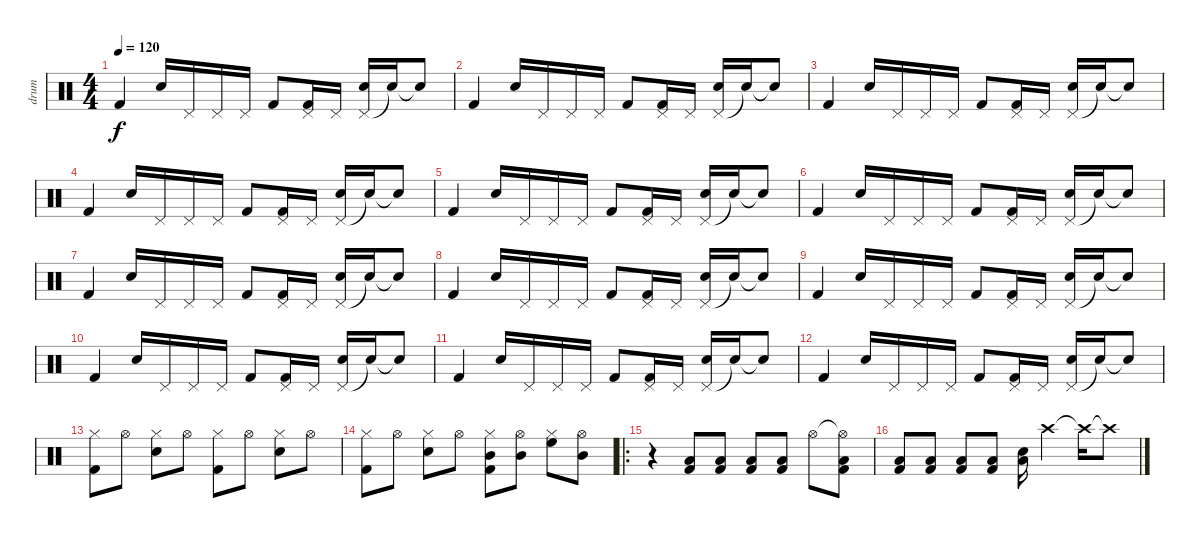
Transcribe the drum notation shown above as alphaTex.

\track ("drum" "drum") {instrument percussion}
\staff {score}
\articulation defaults
\ts (4 4)
\tempo 120
\clef neutral
\ks c "Kick (hit) 2".4{dy f} "Electric Snare (hit)".16 "Pedal Hi-Hat (hit)".16 "Pedal Hi-Hat (hit)".16 "Pedal Hi-Hat (hit)".16 "Kick (hit) 2".8
("Pedal Hi-Hat (hit)" "Kick (hit) 2").16 "Pedal Hi-Hat (hit)".16 ("Pedal Hi-Hat (hit)" "Electric Snare (hit)").16 "Snare (hit)"{t}.16 "Snare (hit)"{t}.8 |
"Kick (hit) 2".4 "Electric Snare (hit)".16 "Pedal Hi-Hat (hit)".16 "Pedal Hi-Hat (hit)".16 "Pedal Hi-Hat (hit)".16 "Kick (hit) 2".8 ("Pedal Hi-Hat (hit)" "Kick (hit) 2").16 "Pedal Hi-Hat (hit)".16 ("Pedal Hi-Hat (hit)" "Electric Snare (hit)").16 "Snare (hit)"{t}.16 "Snare (hit)"{t}.8 |
"Kick (hit) 2".4 "Electric Snare (hit)".16 "Pedal Hi-Hat (hit)".16 "Pedal Hi-Hat (hit)".16 "Pedal Hi-Hat (hit)".16 "Kick (hit) 2".8 ("Pedal Hi-Hat (hit)" "Kick (hit) 2").16 "Pedal Hi-Hat (hit)".16 ("Pedal Hi-Hat (hit)" "Electric Snare (hit)").16 "Snare (hit)"{t}.16 "Snare (hit)"{t}.8 |
"Kick (hit) 2".4 "Electric Snare (hit)".16 "Pedal Hi-Hat (hit)".16 "Pedal Hi-Hat (hit)".16 "Pedal Hi-Hat (hit)".16 "Kick (hit) 2".8 ("Pedal Hi-Hat (hit)" "Kick (hit) 2").16 "Pedal Hi-Hat (hit)".16 ("Pedal Hi-Hat (hit)" "Electric Snare (hit)").16 "Snare (hit)"{t}.16 "Snare (hit)"{t}.8 |
"Kick (hit) 2".4 "Electric Snare (hit)".16 "Pedal Hi-Hat (hit)".16 "Pedal Hi-Hat (hit)".16 "Pedal Hi-Hat (hit)".16 "Kick (hit) 2".8 ("Pedal Hi-Hat (hit)" "Kick (hit) 2").16 "Pedal Hi-Hat (hit)".16 ("Pedal Hi-Hat (hit)" "Electric Snare (hit)").16 "Snare (hit)"{t}.16 "Snare (hit)"{t}.8 |
"Kick (hit) 2".4 "Electric Snare (hit)".16 "Pedal Hi-Hat (hit)".16 "Pedal Hi-Hat (hit)".16 "Pedal Hi-Hat (hit)".16 "Kick (hit) 2".8 ("Pedal Hi-Hat (hit)" "Kick (hit) 2").16 "Pedal Hi-Hat (hit)".16 ("Pedal Hi-Hat (hit)" "Electric Snare (hit)").16 "Snare (hit)"{t}.16 "Snare (hit)"{t}.8 |
"Kick (hit) 2".4 "Electric Snare (hit)".16 "Pedal Hi-Hat (hit)".16 "Pedal Hi-Hat (hit)".16 "Pedal Hi-Hat (hit)".16 "Kick (hit) 2".8 ("Pedal Hi-Hat (hit)" "Kick (hit) 2").16 "Pedal Hi-Hat (hit)".16 ("Pedal Hi-Hat (hit)" "Electric Snare (hit)").16 "Snare (hit)"{t}.16 "Snare (hit)"{t}.8 |
"Kick (hit) 2".4 "Electric Snare (hit)".16 "Pedal Hi-Hat (hit)".16 "Pedal Hi-Hat (hit)".16 "Pedal Hi-Hat (hit)".16 "Kick (hit) 2".8 ("Pedal Hi-Hat (hit)" "Kick (hit) 2").16 "Pedal Hi-Hat (hit)".16 ("Pedal Hi-Hat (hit)" "Electric Snare (hit)").16 "Snare (hit)"{t}.16 "Snare (hit)"{t}.8 |
"Kick (hit) 2".4 "Electric Snare (hit)".16 "Pedal Hi-Hat (hit)".16 "Pedal Hi-Hat (hit)".16 "Pedal Hi-Hat (hit)".16 "Kick (hit) 2".8 ("Pedal Hi-Hat (hit)" "Kick (hit) 2").16 "Pedal Hi-Hat (hit)".16 ("Pedal Hi-Hat (hit)" "Electric Snare (hit)").16 "Snare (hit)"{t}.16 "Snare (hit)"{t}.8 |
"Kick (hit) 2".4 "Electric Snare (hit)".16 "Pedal Hi-Hat (hit)".16 "Pedal Hi-Hat (hit)".16 "Pedal Hi-Hat (hit)".16 "Kick (hit) 2".8 ("Pedal Hi-Hat (hit)" "Kick (hit) 2").16 "Pedal Hi-Hat (hit)".16 ("Pedal Hi-Hat (hit)" "Electric Snare (hit)").16 "Snare (hit)"{t}.16 "Snare (hit)"{t}.8 |
"Kick (hit) 2".4 "Electric Snare (hit)".16 "Pedal Hi-Hat (hit)".16 "Pedal Hi-Hat (hit)".16 "Pedal Hi-Hat (hit)".16 "Kick (hit) 2".8 ("Pedal Hi-Hat (hit)" "Kick (hit) 2").16 "Pedal Hi-Hat (hit)".16 ("Pedal Hi-Hat (hit)" "Electric Snare (hit)").16 "Snare (hit)"{t}.16 "Snare (hit)"{t}.8 |
"Kick (hit) 2".4 "Electric Snare (hit)".16 "Pedal Hi-Hat (hit)".16 "Pedal Hi-Hat (hit)".16 "Pedal Hi-Hat (hit)".16 "Kick (hit) 2".8 ("Pedal Hi-Hat (hit)" "Kick (hit) 2").16 "Pedal Hi-Hat (hit)".16 ("Pedal Hi-Hat (hit)" "Electric Snare (hit)").16 "Snare (hit)"{t}.16 "Snare (hit)"{t}.8 |
("Hi-Hat (closed)" "Kick (hit) 2").8 "Hi-Hat (open)".8 ("Hi-Hat (closed)" "Electric Snare (hit)").8 "Hi-Hat (open)".8 ("Hi-Hat (closed)" "Kick (hit) 2").8 "Hi-Hat (open)".8 ("Hi-Hat (closed)" "Electric Snare (hit)").8 "Hi-Hat (open)".8 |
("Hi-Hat (closed)" "Kick (hit) 2").8 "Hi-Hat (open)".8 ("Hi-Hat (closed)" "Electric Snare (hit)").8 "Hi-Hat (open)".8 ("Hi-Hat (closed)" "Mid Tom (hit)" "Kick (hit) 2").8 ("Hi-Hat (open)" "Mid Tom (hit)").8 ("Hi-Hat (closed)" "High Floor Tom (hit)").8 ("Hi-Hat (open)" "Mid Tom (hit)").8 |
\ro
r.4 ("Low Tom (hit)" "Kick (hit) 2").8 ("Low Tom (hit)" "Kick (hit) 2").8 ("Low Tom (hit)" "Kick (hit) 2").8 ("Low Tom (hit)" "Kick (hit) 2").8 "Hi-Hat (open)".8 ("Hi-Hat (open)"{t} "Low Tom (hit)" "Kick (hit) 2").8 |
("Low Tom (hit)" "Kick (hit) 2").8 ("Low Tom (hit)" "Kick (hit) 2").8 ("Low Tom (hit)" "Kick (hit) 2").8 ("Low Tom (hit)" "Kick (hit) 2").8 ("Low Tom (hit)" "Electric Snare (hit)").16 "Crash high (hit)".4 "Crash high (hit)"{t}.16 "Crash high (hit)"{t}.8
